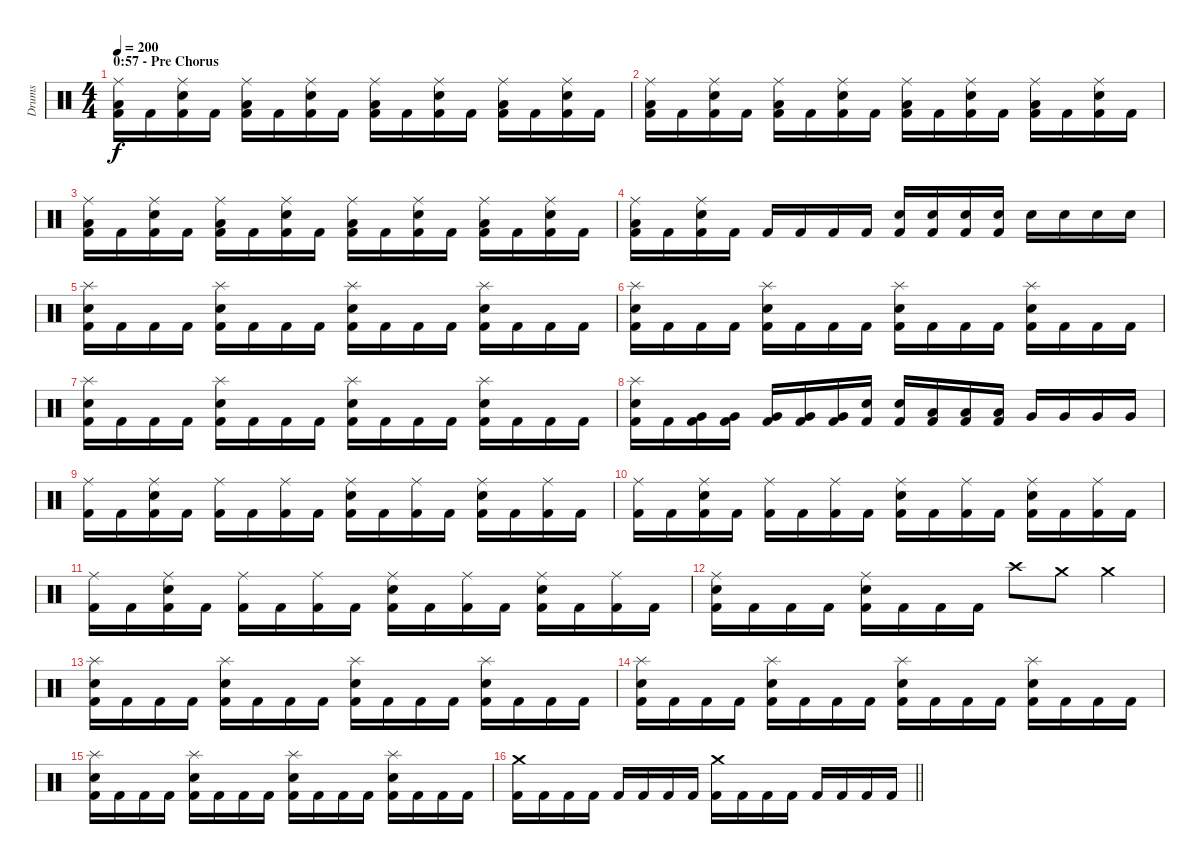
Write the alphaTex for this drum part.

\track ("Drums" "Drums") {instrument percussion}
\staff {score}
\articulation defaults
\ts (4 4)
\section ("" "0:57 - Pre Chorus")
\tempo 200
\clef neutral
\ks c
("Ride (middle)" "Low Floor Tom (hit)" "Kick (hit) 2").16{dy f} "Kick (hit) 2".16 ("Ride (middle)" "Electric Snare (hit)" "Kick (hit) 2").16 "Kick (hit) 2".16 ("Ride (middle)" "Low Floor Tom (hit)" "Kick (hit) 2").16 "Kick (hit) 2".16 ("Ride (middle)" "Electric Snare (hit)" "Kick (hit) 2").16 "Kick (hit) 2".16 ("Ride (middle)" "Low Floor Tom (hit)" "Kick (hit) 2").16 "Kick (hit) 2".16 ("Ride (middle)" "Electric Snare (hit)" "Kick (hit) 2").16 "Kick (hit) 2".16 ("Ride (middle)" "Low Floor Tom (hit)" "Kick (hit) 2").16 "Kick (hit) 2".16 ("Ride (middle)" "Electric Snare (hit)" "Kick (hit) 2").16 "Kick (hit) 2".16 |
("Ride (middle)" "Low Floor Tom (hit)" "Kick (hit) 2").16 "Kick (hit) 2".16 ("Ride (middle)" "Electric Snare (hit)" "Kick (hit) 2").16 "Kick (hit) 2".16 ("Ride (middle)" "Low Floor Tom (hit)" "Kick (hit) 2").16 "Kick (hit) 2".16 ("Ride (middle)" "Electric Snare (hit)" "Kick (hit) 2").16 "Kick (hit) 2".16 ("Ride (middle)" "Low Floor Tom (hit)" "Kick (hit) 2").16 "Kick (hit) 2".16 ("Ride (middle)" "Electric Snare (hit)" "Kick (hit) 2").16 "Kick (hit) 2".16 ("Ride (middle)" "Low Floor Tom (hit)" "Kick (hit) 2").16 "Kick (hit) 2".16 ("Ride (middle)" "Electric Snare (hit)" "Kick (hit) 2").16 "Kick (hit) 2".16 |
("Ride (middle)" "Low Floor Tom (hit)" "Kick (hit) 2").16 "Kick (hit) 2".16 ("Ride (middle)" "Electric Snare (hit)" "Kick (hit) 2").16 "Kick (hit) 2".16 ("Ride (middle)" "Low Floor Tom (hit)" "Kick (hit) 2").16 "Kick (hit) 2".16 ("Ride (middle)" "Electric Snare (hit)" "Kick (hit) 2").16 "Kick (hit) 2".16 ("Ride (middle)" "Low Floor Tom (hit)" "Kick (hit) 2").16 "Kick (hit) 2".16 ("Ride (middle)" "Electric Snare (hit)" "Kick (hit) 2").16 "Kick (hit) 2".16 ("Ride (middle)" "Low Floor Tom (hit)" "Kick (hit) 2").16 "Kick (hit) 2".16 ("Ride (middle)" "Electric Snare (hit)" "Kick (hit) 2").16 "Kick (hit) 2".16 |
("Ride (middle)" "Low Floor Tom (hit)" "Kick (hit) 2").16 "Kick (hit) 2".16 ("Ride (middle)" "Electric Snare (hit)" "Kick (hit) 2").16 "Kick (hit) 2".16 "Kick (hit) 2".16 "Kick (hit) 2".16 "Kick (hit) 2".16 "Kick (hit) 2".16 ("Electric Snare (hit)" "Kick (hit) 2").16 ("Electric Snare (hit)" "Kick (hit) 2").16 ("Electric Snare (hit)" "Kick (hit) 2").16 ("Electric Snare (hit)" "Kick (hit) 2").16 "Electric Snare (hit)".16 "Electric Snare (hit)".16 "Electric Snare (hit)".16 "Electric Snare (hit)".16 |
("Splash (hit)" "Electric Snare (hit)" "Kick (hit) 2").16 "Kick (hit) 2".16 "Kick (hit) 2".16 "Kick (hit) 2".16 ("Splash (hit)" "Electric Snare (hit)" "Kick (hit) 2").16 "Kick (hit) 2".16 "Kick (hit) 2".16 "Kick (hit) 2".16 ("Splash (hit)" "Electric Snare (hit)" "Kick (hit) 2").16 "Kick (hit) 2".16 "Kick (hit) 2".16 "Kick (hit) 2".16 ("Splash (hit)" "Electric Snare (hit)" "Kick (hit) 2").16 "Kick (hit) 2".16 "Kick (hit) 2".16 "Kick (hit) 2".16 |
("Splash (hit)" "Electric Snare (hit)" "Kick (hit) 2").16 "Kick (hit) 2".16 "Kick (hit) 2".16 "Kick (hit) 2".16 ("Splash (hit)" "Electric Snare (hit)" "Kick (hit) 2").16 "Kick (hit) 2".16 "Kick (hit) 2".16 "Kick (hit) 2".16 ("Splash (hit)" "Electric Snare (hit)" "Kick (hit) 2").16 "Kick (hit) 2".16 "Kick (hit) 2".16 "Kick (hit) 2".16 ("Splash (hit)" "Electric Snare (hit)" "Kick (hit) 2").16 "Kick (hit) 2".16 "Kick (hit) 2".16 "Kick (hit) 2".16 |
("Splash (hit)" "Electric Snare (hit)" "Kick (hit) 2").16 "Kick (hit) 2".16 "Kick (hit) 2".16 "Kick (hit) 2".16 ("Splash (hit)" "Electric Snare (hit)" "Kick (hit) 2").16 "Kick (hit) 2".16 "Kick (hit) 2".16 "Kick (hit) 2".16 ("Splash (hit)" "Electric Snare (hit)" "Kick (hit) 2").16 "Kick (hit) 2".16 "Kick (hit) 2".16 "Kick (hit) 2".16 ("Splash (hit)" "Electric Snare (hit)" "Kick (hit) 2").16 "Kick (hit) 2".16 "Kick (hit) 2".16 "Kick (hit) 2".16 |
("Splash (hit)" "Electric Snare (hit)" "Kick (hit) 2").16 "Kick (hit) 2".16 ("Very Low Tom (hit)" "Kick (hit) 2").16 ("Very Low Tom (hit)" "Kick (hit) 2").16 ("Very Low Tom (hit)" "Kick (hit) 2").16 ("Very Low Tom (hit)" "Kick (hit) 2").16 ("Very Low Tom (hit)" "Kick (hit) 2").16 ("Electric Snare (hit)" "Kick (hit) 2").16 ("Electric Snare (hit)" "Kick (hit) 2").16 ("Low Tom (hit)" "Kick (hit) 2").16 ("Low Tom (hit)" "Kick (hit) 2").16 ("Low Tom (hit)" "Kick (hit) 2").16 "Very Low Tom (hit)".16 "Very Low Tom (hit)".16 "Very Low Tom (hit)".16 "Very Low Tom (hit)".16 |
("Ride (middle)" "Kick (hit) 2").16 "Kick (hit) 2".16 ("Ride (middle)" "Electric Snare (hit)" "Kick (hit) 2").16 "Kick (hit) 2".16 ("Ride (middle)" "Kick (hit) 2").16 "Kick (hit) 2".16 ("Ride (middle)" "Kick (hit) 2").16 "Kick (hit) 2".16 ("Ride (middle)" "Electric Snare (hit)" "Kick (hit) 2").16 "Kick (hit) 2".16 ("Ride (middle)" "Kick (hit) 2").16 "Kick (hit) 2".16 ("Ride (middle)" "Electric Snare (hit)" "Kick (hit) 2").16 "Kick (hit) 2".16 ("Ride (middle)" "Kick (hit) 2").16 "Kick (hit) 2".16 |
("Ride (middle)" "Kick (hit) 2").16 "Kick (hit) 2".16 ("Ride (middle)" "Electric Snare (hit)" "Kick (hit) 2").16 "Kick (hit) 2".16 ("Ride (middle)" "Kick (hit) 2").16 "Kick (hit) 2".16 ("Ride (middle)" "Kick (hit) 2").16 "Kick (hit) 2".16 ("Ride (middle)" "Electric Snare (hit)" "Kick (hit) 2").16 "Kick (hit) 2".16 ("Ride (middle)" "Kick (hit) 2").16 "Kick (hit) 2".16 ("Ride (middle)" "Electric Snare (hit)" "Kick (hit) 2").16 "Kick (hit) 2".16 ("Ride (middle)" "Kick (hit) 2").16 "Kick (hit) 2".16 |
("Ride (middle)" "Kick (hit) 2").16 "Kick (hit) 2".16 ("Ride (middle)" "Electric Snare (hit)" "Kick (hit) 2").16 "Kick (hit) 2".16 ("Ride (middle)" "Kick (hit) 2").16 "Kick (hit) 2".16 ("Ride (middle)" "Kick (hit) 2").16 "Kick (hit) 2".16 ("Ride (middle)" "Electric Snare (hit)" "Kick (hit) 2").16 "Kick (hit) 2".16 ("Ride (middle)" "Kick (hit) 2").16 "Kick (hit) 2".16 ("Ride (middle)" "Electric Snare (hit)" "Kick (hit) 2").16 "Kick (hit) 2".16 ("Ride (middle)" "Kick (hit) 2").16 "Kick (hit) 2".16 |
("Ride (middle)" "Electric Snare (hit)" "Kick (hit) 2").16 "Kick (hit) 2".16 "Kick (hit) 2".16 "Kick (hit) 2".16 ("Ride (middle)" "Electric Snare (hit)" "Kick (hit) 2").16 "Kick (hit) 2".16 "Kick (hit) 2".16 "Kick (hit) 2".16 "Crash high (hit)".8 "Crash medium (hit)".8 "Crash medium (hit)".4 |
("Splash (hit)" "Electric Snare (hit)" "Kick (hit) 2").16 "Kick (hit) 2".16 "Kick (hit) 2".16 "Kick (hit) 2".16 ("Splash (hit)" "Electric Snare (hit)" "Kick (hit) 2").16 "Kick (hit) 2".16 "Kick (hit) 2".16 "Kick (hit) 2".16 ("Splash (hit)" "Electric Snare (hit)" "Kick (hit) 2").16 "Kick (hit) 2".16 "Kick (hit) 2".16 "Kick (hit) 2".16 ("Splash (hit)" "Electric Snare (hit)" "Kick (hit) 2").16 "Kick (hit) 2".16 "Kick (hit) 2".16 "Kick (hit) 2".16 |
("Splash (hit)" "Electric Snare (hit)" "Kick (hit) 2").16 "Kick (hit) 2".16 "Kick (hit) 2".16 "Kick (hit) 2".16 ("Splash (hit)" "Electric Snare (hit)" "Kick (hit) 2").16 "Kick (hit) 2".16 "Kick (hit) 2".16 "Kick (hit) 2".16 ("Splash (hit)" "Electric Snare (hit)" "Kick (hit) 2").16 "Kick (hit) 2".16 "Kick (hit) 2".16 "Kick (hit) 2".16 ("Splash (hit)" "Electric Snare (hit)" "Kick (hit) 2").16 "Kick (hit) 2".16 "Kick (hit) 2".16 "Kick (hit) 2".16 |
("Splash (hit)" "Electric Snare (hit)" "Kick (hit) 2").16 "Kick (hit) 2".16 "Kick (hit) 2".16 "Kick (hit) 2".16 ("Splash (hit)" "Electric Snare (hit)" "Kick (hit) 2").16 "Kick (hit) 2".16 "Kick (hit) 2".16 "Kick (hit) 2".16 ("Splash (hit)" "Electric Snare (hit)" "Kick (hit) 2").16 "Kick (hit) 2".16 "Kick (hit) 2".16 "Kick (hit) 2".16 ("Splash (hit)" "Electric Snare (hit)" "Kick (hit) 2").16 "Kick (hit) 2".16 "Kick (hit) 2".16 "Kick (hit) 2".16 |
\barLineRight lightlight
("Crash medium (hit)" "Kick (hit) 2").16 "Kick (hit) 2".16 "Kick (hit) 2".16 "Kick (hit) 2".16 "Kick (hit) 2".16 "Kick (hit) 2".16 "Kick (hit) 2".16 "Kick (hit) 2".16 ("Crash medium (hit)" "Kick (hit) 2").16 "Kick (hit) 2".16 "Kick (hit) 2".16 "Kick (hit) 2".16 "Kick (hit) 2".16 "Kick (hit) 2".16 "Kick (hit) 2".16 "Kick (hit) 2".16
